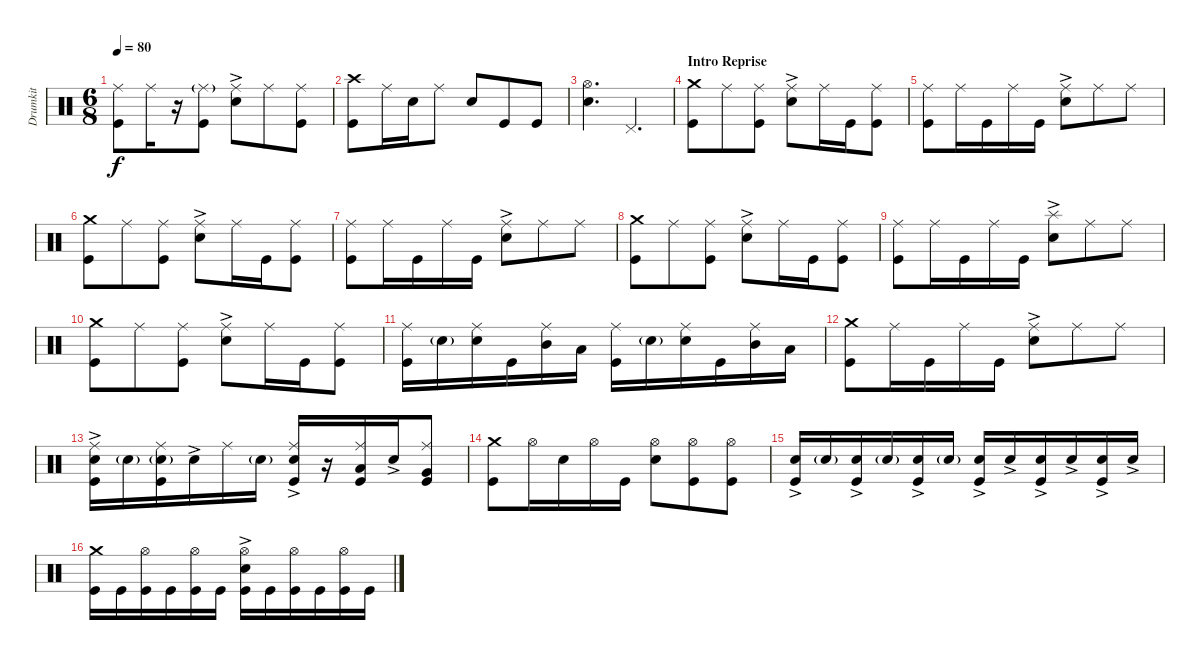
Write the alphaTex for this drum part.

\track ("Drumkit" "Drumkit") {instrument percussion}
\staff {score}
\articulation defaults
\ts (6 8)
\tempo 80
\clef neutral
\ks c
("Kick (hit)" "Ride (middle)").8{dy f} "Ride (middle)".16 r.16 ("Ride (middle)"{g} "Kick (hit)").8 ("Ride (middle)" "Snare (hit) 2"{ac}).8 "Ride (middle)".8 ("Ride (middle)" "Kick (hit)").8 |
("Kick (hit)" "Crash high (hit)").8 "Ride (middle)".16 "Snare (hit) 2".16 "Ride (middle)".8 "Snare (hit) 2".8 "Kick (hit)".8 "Kick (hit)".8 |
("Snare (hit) 2" "Hi-Hat (open)").4{d} "Pedal Hi-Hat (hit)".4{d} |
\section ("" "Intro Reprise")
("Kick (hit)" "Crash medium (hit)").8 "Ride (middle)".8 ("Ride (middle)" "Kick (hit)").8 ("Snare (hit) 2"{ac} "Ride (middle)").8 "Ride (middle)".16 "Kick (hit)".16 ("Kick (hit)" "Ride (middle)").8 |
("Kick (hit)" "Ride (middle)").8 "Ride (middle)".16 "Kick (hit)".16 "Ride (middle)".16 "Kick (hit)".16 ("Snare (hit) 2"{ac} "Ride (middle)").8 "Ride (middle)".8 "Ride (middle)".8 |
("Kick (hit)" "Crash medium (hit)").8 "Ride (middle)".8 ("Ride (middle)" "Kick (hit)").8 ("Snare (hit) 2"{ac} "Ride (middle)").8 "Ride (middle)".16 "Kick (hit)".16 ("Kick (hit)" "Ride (middle)").8 |
("Kick (hit)" "Ride (middle)").8 "Ride (middle)".16 "Kick (hit)".16 "Ride (middle)".16 "Kick (hit)".16 ("Snare (hit) 2"{ac} "Ride (middle)").8 "Ride (middle)".8 "Ride (middle)".8 |
("Kick (hit)" "Crash medium (hit)").8 "Ride (middle)".8 ("Ride (middle)" "Kick (hit)").8 ("Snare (hit) 2"{ac} "Ride (middle)").8 "Ride (middle)".16 "Kick (hit)".16 ("Kick (hit)" "Ride (middle)").8 |
("Kick (hit)" "Ride (middle)").8 "Ride (middle)".16 "Kick (hit)".16 "Ride (middle)".16 "Kick (hit)".16 ("Snare (hit) 2"{ac} "Splash (hit)").8 "Ride (middle)".8 "Ride (middle)".8 |
("Kick (hit)" "Crash medium (hit)").8 "Ride (middle)".8 ("Ride (middle)" "Kick (hit)").8 ("Snare (hit) 2"{ac} "Ride (middle)").8 "Ride (middle)".16 "Kick (hit)".16 ("Kick (hit)" "Ride (middle)").8 |
("Kick (hit)" "Ride (middle)").16 "Snare (hit) 2"{g}.16 ("Snare (hit) 2" "Ride (middle)").16 "Kick (hit)".16 ("Mid Tom (hit)" "Ride (middle)").16 "Low Tom (hit)".16 ("Kick (hit)" "Ride (middle)").16 "Snare (hit) 2"{g}.16 ("Snare (hit) 2" "Ride (middle)").16 "Kick (hit)".16 ("Mid Tom (hit)" "Ride (middle)").16 "Low Tom (hit)".16 |
("Kick (hit)" "Crash medium (hit)").8 "Ride (middle)".16 "Kick (hit)".16 "Ride (middle)".16 "Kick (hit)".16 ("Snare (hit) 2"{ac} "Ride (middle)").8 "Ride (middle)".8 "Ride (middle)".8 |
("Snare (hit) 2"{ac} "Ride (middle)" "Kick (hit)").16 "Snare (hit) 2"{g}.16 ("Ride (middle)" "Kick (hit)" "Snare (hit) 2"{g}).16 "Snare (hit) 2"{ac}.16 "Ride (middle)".16 "Snare (hit) 2"{g}.16 ("Snare (hit) 2"{ac} "Ride (middle)" "Kick (hit)").16 r.16 ("Low Tom (hit)" "Ride (middle)" "Kick (hit)").16 "Snare (hit) 2"{ac}.16 ("Very Low Tom (hit)" "Ride (middle)" "Kick (hit)").8 |
("Kick (hit)" "Crash medium (hit)").8 "Hi-Hat (open)".16 "Snare (hit) 2".16 "Hi-Hat (open)".16 "Kick (hit)".16 ("Snare (hit) 2" "Hi-Hat (open)").8 ("Kick (hit)" "Hi-Hat (open)").8 ("Kick (hit)" "Hi-Hat (open)").8 |
("Snare (hit) 2"{ac} "Kick (hit)").16 "Snare (hit) 2"{g}.16 ("Snare (hit) 2"{ac} "Kick (hit)").16 "Snare (hit) 2"{g}.16 ("Snare (hit) 2"{ac} "Kick (hit)").16 "Snare (hit) 2"{g}.16 ("Snare (hit) 2"{ac} "Kick (hit)").16 "Snare (hit) 2"{ac}.16 ("Snare (hit) 2"{ac} "Kick (hit)").16 "Snare (hit) 2"{ac}.16 ("Snare (hit) 2"{ac} "Kick (hit)").16 "Snare (hit) 2"{ac}.16 |
("Kick (hit)" "Crash medium (hit)").16 "Kick (hit)".16 ("Kick (hit)" "Hi-Hat (open)").16 "Kick (hit)".16 ("Kick (hit)" "Hi-Hat (open)").16 "Kick (hit)".16 ("Kick (hit)" "Hi-Hat (open)" "Snare (hit) 2"{ac}).16 "Kick (hit)".16 ("Kick (hit)" "Hi-Hat (open)").16 "Kick (hit)".16 ("Kick (hit)" "Hi-Hat (open)").16 "Kick (hit)".16
